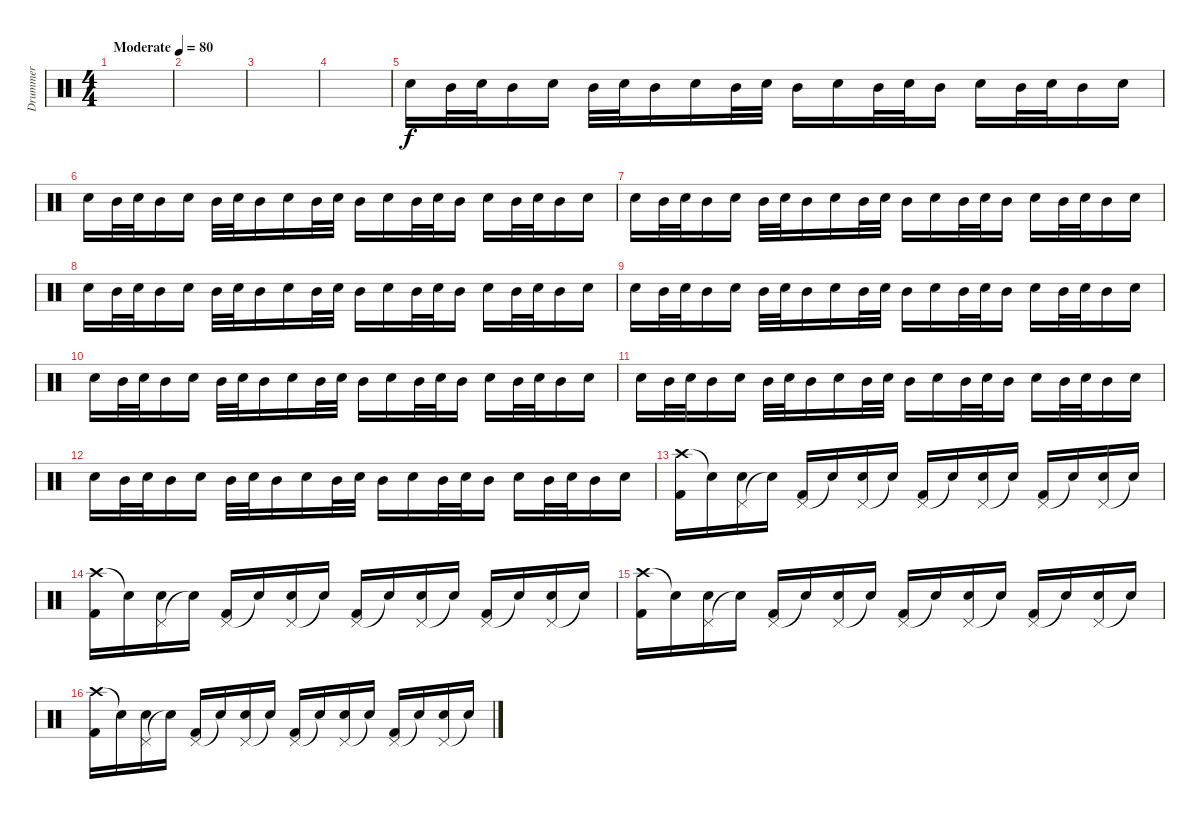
\track ("Drummer" "Drummer") {instrument percussion}
\staff {score}
\articulation defaults
\ts (4 4)
\tempo (80 "Moderate")
\clef neutral
\ks c
|
|
|
|
"Electric Snare (hit)".16 "Mid Tom (hit)".32 "Electric Snare (hit)".32 "Mid Tom (hit)".16 "Electric Snare (hit)".16 "Mid Tom (hit)".32 "Electric Snare (hit)".32 "Mid Tom (hit)".16 "Electric Snare (hit)".16 "Mid Tom (hit)".32 "Electric Snare (hit)".32 "Mid Tom (hit)".16 "Electric Snare (hit)".16 "Mid Tom (hit)".32 "Electric Snare (hit)".32 "Mid Tom (hit)".16 "Electric Snare (hit)".16 "Mid Tom (hit)".32 "Electric Snare (hit)".32 "Mid Tom (hit)".16 "Electric Snare (hit)".16 |
"Electric Snare (hit)".16 "Mid Tom (hit)".32 "Electric Snare (hit)".32 "Mid Tom (hit)".16 "Electric Snare (hit)".16 "Mid Tom (hit)".32 "Electric Snare (hit)".32 "Mid Tom (hit)".16 "Electric Snare (hit)".16 "Mid Tom (hit)".32 "Electric Snare (hit)".32 "Mid Tom (hit)".16 "Electric Snare (hit)".16 "Mid Tom (hit)".32 "Electric Snare (hit)".32 "Mid Tom (hit)".16 "Electric Snare (hit)".16 "Mid Tom (hit)".32 "Electric Snare (hit)".32 "Mid Tom (hit)".16 "Electric Snare (hit)".16 |
"Electric Snare (hit)".16 "Mid Tom (hit)".32 "Electric Snare (hit)".32 "Mid Tom (hit)".16 "Electric Snare (hit)".16 "Mid Tom (hit)".32 "Electric Snare (hit)".32 "Mid Tom (hit)".16 "Electric Snare (hit)".16 "Mid Tom (hit)".32 "Electric Snare (hit)".32 "Mid Tom (hit)".16 "Electric Snare (hit)".16 "Mid Tom (hit)".32 "Electric Snare (hit)".32 "Mid Tom (hit)".16 "Electric Snare (hit)".16 "Mid Tom (hit)".32 "Electric Snare (hit)".32 "Mid Tom (hit)".16 "Electric Snare (hit)".16 |
"Electric Snare (hit)".16 "Mid Tom (hit)".32 "Electric Snare (hit)".32 "Mid Tom (hit)".16 "Electric Snare (hit)".16 "Mid Tom (hit)".32 "Electric Snare (hit)".32 "Mid Tom (hit)".16 "Electric Snare (hit)".16 "Mid Tom (hit)".32 "Electric Snare (hit)".32 "Mid Tom (hit)".16 "Electric Snare (hit)".16 "Mid Tom (hit)".32 "Electric Snare (hit)".32 "Mid Tom (hit)".16 "Electric Snare (hit)".16 "Mid Tom (hit)".32 "Electric Snare (hit)".32 "Mid Tom (hit)".16 "Electric Snare (hit)".16 |
"Electric Snare (hit)".16 "Mid Tom (hit)".32 "Electric Snare (hit)".32 "Mid Tom (hit)".16 "Electric Snare (hit)".16 "Mid Tom (hit)".32 "Electric Snare (hit)".32 "Mid Tom (hit)".16 "Electric Snare (hit)".16 "Mid Tom (hit)".32 "Electric Snare (hit)".32 "Mid Tom (hit)".16 "Electric Snare (hit)".16 "Mid Tom (hit)".32 "Electric Snare (hit)".32 "Mid Tom (hit)".16 "Electric Snare (hit)".16 "Mid Tom (hit)".32 "Electric Snare (hit)".32 "Mid Tom (hit)".16 "Electric Snare (hit)".16 |
"Electric Snare (hit)".16 "Mid Tom (hit)".32 "Electric Snare (hit)".32 "Mid Tom (hit)".16 "Electric Snare (hit)".16 "Mid Tom (hit)".32 "Electric Snare (hit)".32 "Mid Tom (hit)".16 "Electric Snare (hit)".16 "Mid Tom (hit)".32 "Electric Snare (hit)".32 "Mid Tom (hit)".16 "Electric Snare (hit)".16 "Mid Tom (hit)".32 "Electric Snare (hit)".32 "Mid Tom (hit)".16 "Electric Snare (hit)".16 "Mid Tom (hit)".32 "Electric Snare (hit)".32 "Mid Tom (hit)".16 "Electric Snare (hit)".16 |
"Electric Snare (hit)".16 "Mid Tom (hit)".32 "Electric Snare (hit)".32 "Mid Tom (hit)".16 "Electric Snare (hit)".16 "Mid Tom (hit)".32 "Electric Snare (hit)".32 "Mid Tom (hit)".16 "Electric Snare (hit)".16 "Mid Tom (hit)".32 "Electric Snare (hit)".32 "Mid Tom (hit)".16 "Electric Snare (hit)".16 "Mid Tom (hit)".32 "Electric Snare (hit)".32 "Mid Tom (hit)".16 "Electric Snare (hit)".16 "Mid Tom (hit)".32 "Electric Snare (hit)".32 "Mid Tom (hit)".16 "Electric Snare (hit)".16 |
"Electric Snare (hit)".16 "Mid Tom (hit)".32 "Electric Snare (hit)".32 "Mid Tom (hit)".16 "Electric Snare (hit)".16 "Mid Tom (hit)".32 "Electric Snare (hit)".32 "Mid Tom (hit)".16 "Electric Snare (hit)".16 "Mid Tom (hit)".32 "Electric Snare (hit)".32 "Mid Tom (hit)".16 "Electric Snare (hit)".16 "Mid Tom (hit)".32 "Electric Snare (hit)".32 "Mid Tom (hit)".16 "Electric Snare (hit)".16 "Mid Tom (hit)".32 "Electric Snare (hit)".32 "Mid Tom (hit)".16 "Electric Snare (hit)".16 |
("Crash high (hit)" "Kick (hit) 2").16 "Snare (hit)"{t}.16 ("Pedal Hi-Hat (hit)" "Electric Snare (hit)").16 "Snare (hit)"{t}.16 ("Pedal Hi-Hat (hit)" "Kick (hit) 2").16 "Snare (hit)"{t}.16 ("Pedal Hi-Hat (hit)" "Electric Snare (hit)").16 "Snare (hit)"{t}.16 ("Pedal Hi-Hat (hit)" "Kick (hit) 2").16 "Snare (hit)"{t}.16 ("Pedal Hi-Hat (hit)" "Electric Snare (hit)").16 "Snare (hit)"{t}.16 ("Pedal Hi-Hat (hit)" "Kick (hit) 2").16 "Snare (hit)"{t}.16 ("Pedal Hi-Hat (hit)" "Electric Snare (hit)").16 "Snare (hit)"{t}.16 |
("Crash high (hit)" "Kick (hit) 2").16 "Snare (hit)"{t}.16 ("Pedal Hi-Hat (hit)" "Electric Snare (hit)").16 "Snare (hit)"{t}.16 ("Pedal Hi-Hat (hit)" "Kick (hit) 2").16 "Snare (hit)"{t}.16 ("Pedal Hi-Hat (hit)" "Electric Snare (hit)").16 "Snare (hit)"{t}.16 ("Pedal Hi-Hat (hit)" "Kick (hit) 2").16 "Snare (hit)"{t}.16 ("Pedal Hi-Hat (hit)" "Electric Snare (hit)").16 "Snare (hit)"{t}.16 ("Pedal Hi-Hat (hit)" "Kick (hit) 2").16 "Snare (hit)"{t}.16 ("Pedal Hi-Hat (hit)" "Electric Snare (hit)").16 "Snare (hit)"{t}.16 |
("Crash high (hit)" "Kick (hit) 2").16 "Snare (hit)"{t}.16 ("Pedal Hi-Hat (hit)" "Electric Snare (hit)").16 "Snare (hit)"{t}.16 ("Pedal Hi-Hat (hit)" "Kick (hit) 2").16 "Snare (hit)"{t}.16 ("Pedal Hi-Hat (hit)" "Electric Snare (hit)").16 "Snare (hit)"{t}.16 ("Pedal Hi-Hat (hit)" "Kick (hit) 2").16 "Snare (hit)"{t}.16 ("Pedal Hi-Hat (hit)" "Electric Snare (hit)").16 "Snare (hit)"{t}.16 ("Pedal Hi-Hat (hit)" "Kick (hit) 2").16 "Snare (hit)"{t}.16 ("Pedal Hi-Hat (hit)" "Electric Snare (hit)").16 "Snare (hit)"{t}.16 |
("Crash high (hit)" "Kick (hit) 2").16 "Snare (hit)"{t}.16 ("Pedal Hi-Hat (hit)" "Electric Snare (hit)").16 "Snare (hit)"{t}.16 ("Pedal Hi-Hat (hit)" "Kick (hit) 2").16 "Snare (hit)"{t}.16 ("Pedal Hi-Hat (hit)" "Electric Snare (hit)").16 "Snare (hit)"{t}.16 ("Pedal Hi-Hat (hit)" "Kick (hit) 2").16 "Snare (hit)"{t}.16 ("Pedal Hi-Hat (hit)" "Electric Snare (hit)").16 "Snare (hit)"{t}.16 ("Pedal Hi-Hat (hit)" "Kick (hit) 2").16 "Snare (hit)"{t}.16 ("Pedal Hi-Hat (hit)" "Electric Snare (hit)").16 "Snare (hit)"{t}.16
